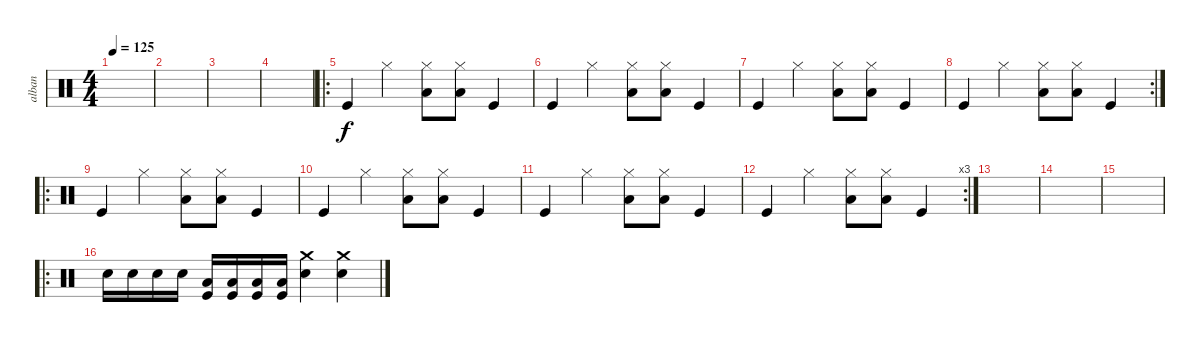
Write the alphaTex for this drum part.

\track ("alban" "alban") {instrument percussion}
\staff {score}
\articulation defaults
\ts (4 4)
\tempo 125
\clef neutral
\ks c
|
|
|
|
\ro "Kick (hit)".4 "Hi-Hat (closed)".4
("Hi-Hat (closed)" "Low Floor Tom (hit)").8 ("Hi-Hat (closed)" "Low Floor Tom (hit)").8 "Kick (hit)".4 |
"Kick (hit)".4 "Hi-Hat (closed)".4 ("Hi-Hat (closed)" "Low Floor Tom (hit)").8 ("Hi-Hat (closed)" "Low Floor Tom (hit)").8 "Kick (hit)".4 |
"Kick (hit)".4 "Hi-Hat (closed)".4 ("Hi-Hat (closed)" "Low Floor Tom (hit)").8 ("Hi-Hat (closed)" "Low Floor Tom (hit)").8 "Kick (hit)".4 |
\rc 2 "Kick (hit)".4 "Hi-Hat (closed)".4
("Hi-Hat (closed)" "Low Floor Tom (hit)").8 ("Hi-Hat (closed)" "Low Floor Tom (hit)").8 "Kick (hit)".4 |
\ro "Kick (hit)".4 "Hi-Hat (closed)".4
("Hi-Hat (closed)" "Low Floor Tom (hit)").8 ("Hi-Hat (closed)" "Low Floor Tom (hit)").8 "Kick (hit)".4 |
"Kick (hit)".4 "Hi-Hat (closed)".4 ("Hi-Hat (closed)" "Low Floor Tom (hit)").8 ("Hi-Hat (closed)" "Low Floor Tom (hit)").8 "Kick (hit)".4 |
"Kick (hit)".4 "Hi-Hat (closed)".4 ("Hi-Hat (closed)" "Low Floor Tom (hit)").8 ("Hi-Hat (closed)" "Low Floor Tom (hit)").8 "Kick (hit)".4 |
\rc 3 "Kick (hit)".4 "Hi-Hat (closed)".4
("Hi-Hat (closed)" "Low Floor Tom (hit)").8 ("Hi-Hat (closed)" "Low Floor Tom (hit)").8 "Kick (hit)".4 |
|
|
|
\ro "Snare (hit) 2".16 "Snare (hit) 2".16 "Snare (hit) 2".16 "Snare (hit) 2".16
("Low Floor Tom (hit)" "Kick (hit)").16 ("Low Floor Tom (hit)" "Kick (hit)").16 ("Low Floor Tom (hit)" "Kick (hit)").16 ("Low Floor Tom (hit)" "Kick (hit)").16 ("Crash medium (hit)" "Metronome (bell)").4 ("Crash medium (hit)" "Metronome (bell)").4
